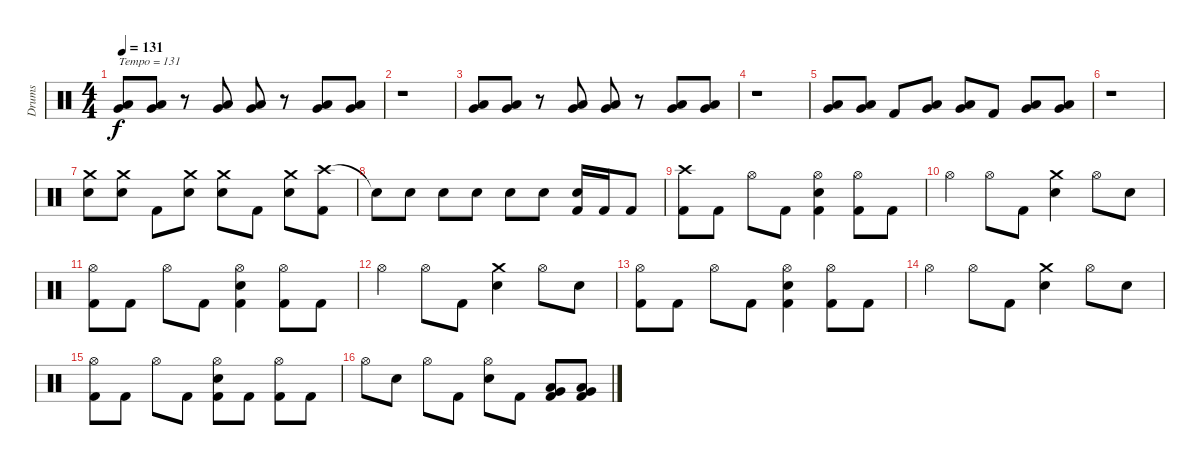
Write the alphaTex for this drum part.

\track ("Drums" "Drums") {instrument percussion}
\staff {score}
\articulation defaults
\ts (4 4)
\tempo 131
\clef neutral
\ks c
("Very Low Tom (hit)" "Low Floor Tom (hit)").8{txt "Tempo = 131" dy f} ("Very Low Tom (hit)" "Low Floor Tom (hit)").8 r.8 ("Very Low Tom (hit)" "Low Floor Tom (hit)").8 ("Very Low Tom (hit)" "Low Floor Tom (hit)").8 r.8 ("Very Low Tom (hit)" "Low Floor Tom (hit)").8 ("Very Low Tom (hit)" "Low Floor Tom (hit)").8 |
r.1 |
("Very Low Tom (hit)" "Low Floor Tom (hit)").8 ("Very Low Tom (hit)" "Low Floor Tom (hit)").8 r.8 ("Very Low Tom (hit)" "Low Floor Tom (hit)").8 ("Very Low Tom (hit)" "Low Floor Tom (hit)").8 r.8 ("Very Low Tom (hit)" "Low Floor Tom (hit)").8 ("Very Low Tom (hit)" "Low Floor Tom (hit)").8 |
r.1 |
("Very Low Tom (hit)" "Low Floor Tom (hit)").8 ("Very Low Tom (hit)" "Low Floor Tom (hit)").8 "Kick (hit) 2".8 ("Very Low Tom (hit)" "Low Floor Tom (hit)").8 ("Very Low Tom (hit)" "Low Floor Tom (hit)").8 "Kick (hit) 2".8 ("Very Low Tom (hit)" "Low Floor Tom (hit)").8 ("Very Low Tom (hit)" "Low Floor Tom (hit)").8 |
r.1 |
("Crash medium (hit)" "Electric Snare (hit)").8 ("Crash medium (hit)" "Electric Snare (hit)").8 "Kick (hit) 2".8 ("Crash medium (hit)" "Electric Snare (hit)").8 ("Crash medium (hit)" "Electric Snare (hit)").8 "Kick (hit) 2".8 ("Crash medium (hit)" "Electric Snare (hit)").8 ("Crash high (hit)" "Kick (hit) 2").8 |
"Snare (hit)"{t}.8 "Electric Snare (hit)".8 "Electric Snare (hit)".8 "Electric Snare (hit)".8 "Electric Snare (hit)".8 "Electric Snare (hit)".8 ("Electric Snare (hit)" "Kick (hit) 2").16 "Kick (hit) 2".16 "Kick (hit) 2".8 |
("Crash high (hit)" "Kick (hit) 2").8 "Kick (hit) 2".8 "Hi-Hat (open)".8 "Kick (hit) 2".8 ("Hi-Hat (open)" "Electric Snare (hit)" "Kick (hit) 2").4 ("Hi-Hat (open)" "Kick (hit) 2").8 "Kick (hit) 2".8 |
"Hi-Hat (open)".4 "Hi-Hat (open)".8 "Kick (hit) 2".8 ("Crash medium (hit)" "Electric Snare (hit)").4 "Hi-Hat (open)".8 "Electric Snare (hit)".8 |
("Hi-Hat (open)" "Kick (hit) 2").8 "Kick (hit) 2".8 "Hi-Hat (open)".8 "Kick (hit) 2".8 ("Hi-Hat (open)" "Electric Snare (hit)" "Kick (hit) 2").4 ("Hi-Hat (open)" "Kick (hit) 2").8 "Kick (hit) 2".8 |
"Hi-Hat (open)".4 "Hi-Hat (open)".8 "Kick (hit) 2".8 ("Crash medium (hit)" "Electric Snare (hit)").4 "Hi-Hat (open)".8 "Electric Snare (hit)".8 |
("Hi-Hat (open)" "Kick (hit) 2").8 "Kick (hit) 2".8 "Hi-Hat (open)".8 "Kick (hit) 2".8 ("Hi-Hat (open)" "Electric Snare (hit)" "Kick (hit) 2").4 ("Hi-Hat (open)" "Kick (hit) 2").8 "Kick (hit) 2".8 |
"Hi-Hat (open)".4 "Hi-Hat (open)".8 "Kick (hit) 2".8 ("Crash medium (hit)" "Electric Snare (hit)").4 "Hi-Hat (open)".8 "Electric Snare (hit)".8 |
("Hi-Hat (open)" "Kick (hit) 2").8 "Kick (hit) 2".8 "Hi-Hat (open)".8 "Kick (hit) 2".8 ("Hi-Hat (open)" "Electric Snare (hit)" "Kick (hit) 2").8 "Kick (hit) 2".8 ("Hi-Hat (open)" "Kick (hit) 2").8 "Kick (hit) 2".8 |
"Hi-Hat (open)".8 "Electric Snare (hit)".8 "Hi-Hat (open)".8 "Kick (hit) 2".8 ("Hi-Hat (open)" "Electric Snare (hit)").8 "Kick (hit) 2".8 ("Very Low Tom (hit)" "Low Floor Tom (hit)" "Kick (hit) 2").8 ("Very Low Tom (hit)" "Low Floor Tom (hit)" "Kick (hit) 2").8
